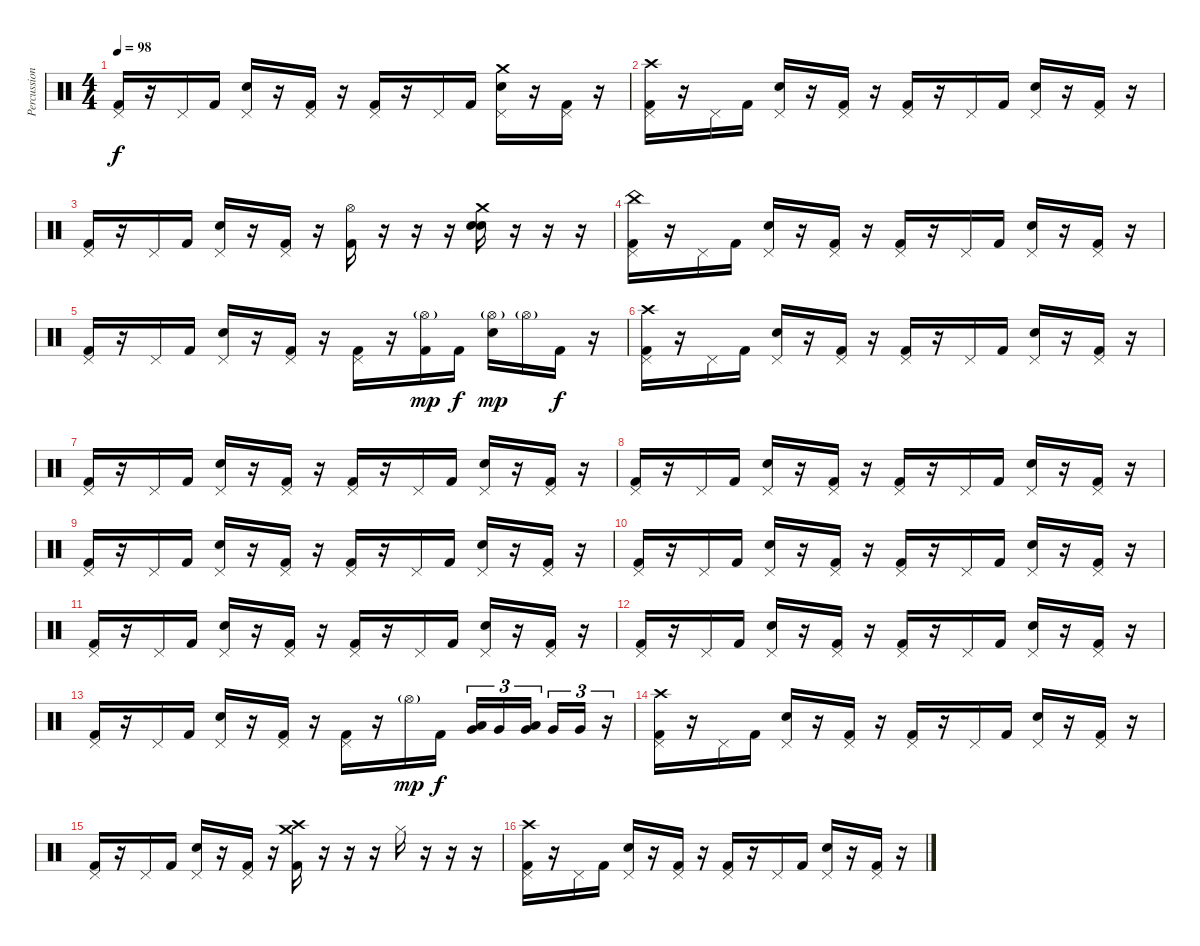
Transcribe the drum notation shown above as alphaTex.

\track ("Percussions" "Percussion") {instrument percussion}
\staff {score}
\articulation defaults
\ts (4 4)
\tempo 98
\clef neutral
\ks c
("Pedal Hi-Hat (hit)" "Kick (hit) 2").16{dy f} r.16 "Pedal Hi-Hat (hit)".16 "Kick (hit) 2".16 ("Pedal Hi-Hat (hit)" "Snare (hit) 2").16 r.16 ("Pedal Hi-Hat (hit)" "Kick (hit) 2").16 r.16 ("Pedal Hi-Hat (hit)" "Kick (hit) 2").16 r.16 "Pedal Hi-Hat (hit)".16 "Kick (hit) 2".16 ("Pedal Hi-Hat (hit)" "Crash medium (hit)" "Snare (hit) 2").16 r.16 ("Pedal Hi-Hat (hit)" "Kick (hit) 2").16 r.16 |
("Pedal Hi-Hat (hit)" "Crash high (hit)" "Kick (hit) 2").16 r.16 "Pedal Hi-Hat (hit)".16 "Kick (hit) 2".16 ("Pedal Hi-Hat (hit)" "Snare (hit) 2").16 r.16 ("Pedal Hi-Hat (hit)" "Kick (hit) 2").16 r.16 ("Pedal Hi-Hat (hit)" "Kick (hit) 2").16 r.16 "Pedal Hi-Hat (hit)".16 "Kick (hit) 2".16 ("Pedal Hi-Hat (hit)" "Snare (hit) 2").16 r.16 ("Pedal Hi-Hat (hit)" "Kick (hit) 2").16 r.16 |
("Pedal Hi-Hat (hit)" "Kick (hit) 2").16 r.16 "Pedal Hi-Hat (hit)".16 "Kick (hit) 2".16 ("Pedal Hi-Hat (hit)" "Snare (hit) 2").16 r.16 ("Pedal Hi-Hat (hit)" "Kick (hit) 2").16 r.16 ("Hi-Hat (open)" "Kick (hit) 2").16 r.16 r.16 r.16 ("Snare (hit) 2" "Crash medium (hit)" "Snare (hit) 2").16 r.16 r.16 r.16 |
("Pedal Hi-Hat (hit)" "China (hit)" "Kick (hit) 2").16 r.16 "Pedal Hi-Hat (hit)".16 "Kick (hit) 2".16 ("Pedal Hi-Hat (hit)" "Snare (hit) 2").16 r.16 ("Pedal Hi-Hat (hit)" "Kick (hit) 2").16 r.16 ("Pedal Hi-Hat (hit)" "Kick (hit) 2").16 r.16 "Pedal Hi-Hat (hit)".16 "Kick (hit) 2".16 ("Pedal Hi-Hat (hit)" "Snare (hit) 2").16 r.16 ("Pedal Hi-Hat (hit)" "Kick (hit) 2").16 r.16 |
("Pedal Hi-Hat (hit)" "Kick (hit) 2").16 r.16 "Pedal Hi-Hat (hit)".16 "Kick (hit) 2".16 ("Pedal Hi-Hat (hit)" "Snare (hit) 2").16 r.16 ("Pedal Hi-Hat (hit)" "Kick (hit) 2").16 r.16 ("Pedal Hi-Hat (hit)" "Kick (hit) 2").16 r.16 ("Hi-Hat (open)"{g} "Kick (hit) 2").16{dy mp} "Kick (hit) 2".16{dy f} ("Hi-Hat (open)"{g} "Snare (hit) 2").16{dy mp} "Hi-Hat (open)"{g}.16 "Kick (hit) 2".16{dy f} r.16 |
("Pedal Hi-Hat (hit)" "Crash high (hit)" "Kick (hit) 2").16 r.16 "Pedal Hi-Hat (hit)".16 "Kick (hit) 2".16 ("Pedal Hi-Hat (hit)" "Snare (hit) 2").16 r.16 ("Pedal Hi-Hat (hit)" "Kick (hit) 2").16 r.16 ("Pedal Hi-Hat (hit)" "Kick (hit) 2").16 r.16 "Pedal Hi-Hat (hit)".16 "Kick (hit) 2".16 ("Pedal Hi-Hat (hit)" "Snare (hit) 2").16 r.16 ("Pedal Hi-Hat (hit)" "Kick (hit) 2").16 r.16 |
("Pedal Hi-Hat (hit)" "Kick (hit) 2").16 r.16 "Pedal Hi-Hat (hit)".16 "Kick (hit) 2".16 ("Pedal Hi-Hat (hit)" "Snare (hit) 2").16 r.16 ("Pedal Hi-Hat (hit)" "Kick (hit) 2").16 r.16 ("Pedal Hi-Hat (hit)" "Kick (hit) 2").16 r.16 "Pedal Hi-Hat (hit)".16 "Kick (hit) 2".16 ("Pedal Hi-Hat (hit)" "Snare (hit) 2").16 r.16 ("Pedal Hi-Hat (hit)" "Kick (hit) 2").16 r.16 |
("Pedal Hi-Hat (hit)" "Kick (hit) 2").16 r.16 "Pedal Hi-Hat (hit)".16 "Kick (hit) 2".16 ("Pedal Hi-Hat (hit)" "Snare (hit) 2").16 r.16 ("Pedal Hi-Hat (hit)" "Kick (hit) 2").16 r.16 ("Pedal Hi-Hat (hit)" "Kick (hit) 2").16 r.16 "Pedal Hi-Hat (hit)".16 "Kick (hit) 2".16 ("Pedal Hi-Hat (hit)" "Snare (hit) 2").16 r.16 ("Pedal Hi-Hat (hit)" "Kick (hit) 2").16 r.16 |
("Pedal Hi-Hat (hit)" "Kick (hit) 2").16 r.16 "Pedal Hi-Hat (hit)".16 "Kick (hit) 2".16 ("Pedal Hi-Hat (hit)" "Snare (hit) 2").16 r.16 ("Pedal Hi-Hat (hit)" "Kick (hit) 2").16 r.16 ("Pedal Hi-Hat (hit)" "Kick (hit) 2").16 r.16 "Pedal Hi-Hat (hit)".16 "Kick (hit) 2".16 ("Pedal Hi-Hat (hit)" "Snare (hit) 2").16 r.16 ("Pedal Hi-Hat (hit)" "Kick (hit) 2").16 r.16 |
("Pedal Hi-Hat (hit)" "Kick (hit) 2").16 r.16 "Pedal Hi-Hat (hit)".16 "Kick (hit) 2".16 ("Pedal Hi-Hat (hit)" "Snare (hit) 2").16 r.16 ("Pedal Hi-Hat (hit)" "Kick (hit) 2").16 r.16 ("Pedal Hi-Hat (hit)" "Kick (hit) 2").16 r.16 "Pedal Hi-Hat (hit)".16 "Kick (hit) 2".16 ("Pedal Hi-Hat (hit)" "Snare (hit) 2").16 r.16 ("Pedal Hi-Hat (hit)" "Kick (hit) 2").16 r.16 |
("Pedal Hi-Hat (hit)" "Kick (hit) 2").16 r.16 "Pedal Hi-Hat (hit)".16 "Kick (hit) 2".16 ("Pedal Hi-Hat (hit)" "Snare (hit) 2").16 r.16 ("Pedal Hi-Hat (hit)" "Kick (hit) 2").16 r.16 ("Pedal Hi-Hat (hit)" "Kick (hit) 2").16 r.16 "Pedal Hi-Hat (hit)".16 "Kick (hit) 2".16 ("Pedal Hi-Hat (hit)" "Snare (hit) 2").16 r.16 ("Pedal Hi-Hat (hit)" "Kick (hit) 2").16 r.16 |
("Pedal Hi-Hat (hit)" "Kick (hit) 2").16 r.16 "Pedal Hi-Hat (hit)".16 "Kick (hit) 2".16 ("Pedal Hi-Hat (hit)" "Snare (hit) 2").16 r.16 ("Pedal Hi-Hat (hit)" "Kick (hit) 2").16 r.16 ("Pedal Hi-Hat (hit)" "Kick (hit) 2").16 r.16 "Pedal Hi-Hat (hit)".16 "Kick (hit) 2".16 ("Pedal Hi-Hat (hit)" "Snare (hit) 2").16 r.16 ("Pedal Hi-Hat (hit)" "Kick (hit) 2").16 r.16 |
("Pedal Hi-Hat (hit)" "Kick (hit) 2").16 r.16 "Pedal Hi-Hat (hit)".16 "Kick (hit) 2".16 ("Pedal Hi-Hat (hit)" "Snare (hit) 2").16 r.16 ("Pedal Hi-Hat (hit)" "Kick (hit) 2").16 r.16 ("Pedal Hi-Hat (hit)" "Kick (hit) 2").16 r.16 "Hi-Hat (open)"{g}.16{dy mp} "Kick (hit) 2".16{dy f} ("Very Low Tom (hit)" "Low Floor Tom (hit)").16{tu (3 2)} "Very Low Tom (hit)".16{tu (3 2)} ("Very Low Tom (hit)" "Low Floor Tom (hit)").16{tu (3 2)} "Very Low Tom (hit)".16{tu (3 2)} "Very Low Tom (hit)".16{tu (3 2)} r.16{tu (3 2)} |
("Pedal Hi-Hat (hit)" "Crash high (hit)" "Kick (hit) 2").16 r.16 "Pedal Hi-Hat (hit)".16 "Kick (hit) 2".16 ("Pedal Hi-Hat (hit)" "Snare (hit) 2").16 r.16 ("Pedal Hi-Hat (hit)" "Kick (hit) 2").16 r.16 ("Pedal Hi-Hat (hit)" "Kick (hit) 2").16 r.16 "Pedal Hi-Hat (hit)".16 "Kick (hit) 2".16 ("Pedal Hi-Hat (hit)" "Snare (hit) 2").16 r.16 ("Pedal Hi-Hat (hit)" "Kick (hit) 2").16 r.16 |
("Pedal Hi-Hat (hit)" "Kick (hit) 2").16 r.16 "Pedal Hi-Hat (hit)".16 "Kick (hit) 2".16 ("Pedal Hi-Hat (hit)" "Snare (hit) 2").16 r.16 ("Pedal Hi-Hat (hit)" "Kick (hit) 2").16 r.16 ("Crash high (hit)" "Crash medium (hit)" "Kick (hit) 2").16 r.16 r.16 r.16 "Hi-Hat (closed)".16 r.16 r.16 r.16 |
("Pedal Hi-Hat (hit)" "Crash high (hit)" "Kick (hit) 2").16 r.16 "Pedal Hi-Hat (hit)".16 "Kick (hit) 2".16 ("Pedal Hi-Hat (hit)" "Snare (hit) 2").16 r.16 ("Pedal Hi-Hat (hit)" "Kick (hit) 2").16 r.16 ("Pedal Hi-Hat (hit)" "Kick (hit) 2").16 r.16 "Pedal Hi-Hat (hit)".16 "Kick (hit) 2".16 ("Pedal Hi-Hat (hit)" "Snare (hit) 2").16 r.16 ("Pedal Hi-Hat (hit)" "Kick (hit) 2").16 r.16
